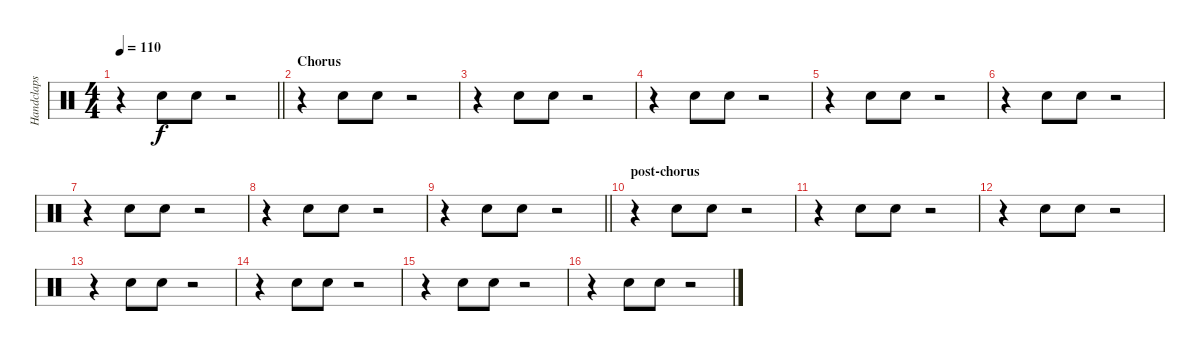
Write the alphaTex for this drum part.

\track ("Handclaps" "Handclaps") {instrument percussion}
\staff {score}
\articulation defaults
\ts (4 4)
\tempo 110
\clef neutral
\barLineRight lightlight
\ks c
r.4{dy f} "Hand Clap (hit)".8 "Hand Clap (hit)".8 r.2 |
\section ("" "Chorus")
r.4 "Hand Clap (hit)".8 "Hand Clap (hit)".8 r.2 |
r.4 "Hand Clap (hit)".8 "Hand Clap (hit)".8 r.2 |
r.4 "Hand Clap (hit)".8 "Hand Clap (hit)".8 r.2 |
r.4 "Hand Clap (hit)".8 "Hand Clap (hit)".8 r.2 |
r.4 "Hand Clap (hit)".8 "Hand Clap (hit)".8 r.2 |
r.4 "Hand Clap (hit)".8 "Hand Clap (hit)".8 r.2 |
r.4 "Hand Clap (hit)".8 "Hand Clap (hit)".8 r.2 |
\barLineRight lightlight
r.4 "Hand Clap (hit)".8 "Hand Clap (hit)".8 r.2 |
\section ("" "post-chorus")
r.4 "Hand Clap (hit)".8 "Hand Clap (hit)".8 r.2 |
r.4 "Hand Clap (hit)".8 "Hand Clap (hit)".8 r.2 |
r.4 "Hand Clap (hit)".8 "Hand Clap (hit)".8 r.2 |
r.4 "Hand Clap (hit)".8 "Hand Clap (hit)".8 r.2 |
r.4 "Hand Clap (hit)".8 "Hand Clap (hit)".8 r.2 |
r.4 "Hand Clap (hit)".8 "Hand Clap (hit)".8 r.2 |
r.4 "Hand Clap (hit)".8 "Hand Clap (hit)".8 r.2
